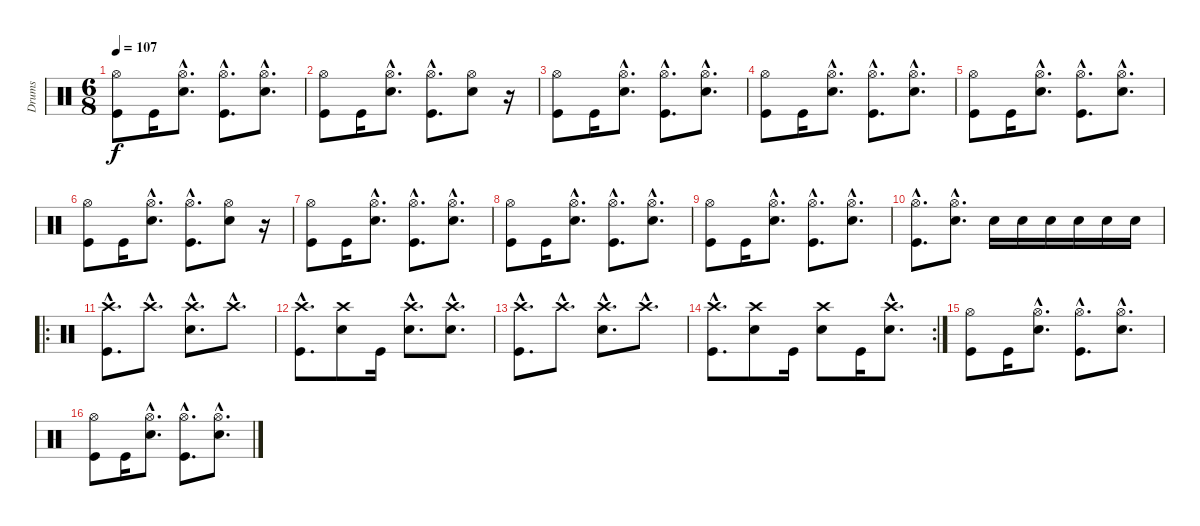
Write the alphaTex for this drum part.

\track ("Drums" "Drums") {instrument percussion}
\staff {score}
\articulation defaults
\ts (6 8)
\tempo 107
\clef neutral
\ks c
("Hi-Hat (open)" "Kick (hit)").8{dy f} "Kick (hit)".16 ("Hi-Hat (open)"{hac} "Snare (hit) 2"{hac}).8{d} ("Hi-Hat (open)"{hac} "Kick (hit)"{hac}).8{d} ("Hi-Hat (open)"{hac} "Snare (hit) 2"{hac}).8{d} |
("Hi-Hat (open)" "Kick (hit)").8 "Kick (hit)".16 ("Hi-Hat (open)"{hac} "Snare (hit) 2"{hac}).8{d} ("Hi-Hat (open)"{hac} "Kick (hit)"{hac}).8{d} ("Hi-Hat (open)" "Snare (hit) 2").8 r.16 |
("Hi-Hat (open)" "Kick (hit)").8 "Kick (hit)".16 ("Hi-Hat (open)"{hac} "Snare (hit) 2"{hac}).8{d} ("Hi-Hat (open)"{hac} "Kick (hit)"{hac}).8{d} ("Hi-Hat (open)"{hac} "Snare (hit) 2"{hac}).8{d} |
("Hi-Hat (open)" "Kick (hit)").8 "Kick (hit)".16 ("Hi-Hat (open)"{hac} "Snare (hit) 2"{hac}).8{d} ("Hi-Hat (open)"{hac} "Kick (hit)"{hac}).8{d} ("Hi-Hat (open)"{hac} "Snare (hit) 2"{hac}).8{d} |
("Hi-Hat (open)" "Kick (hit)").8 "Kick (hit)".16 ("Hi-Hat (open)"{hac} "Snare (hit) 2"{hac}).8{d} ("Hi-Hat (open)"{hac} "Kick (hit)"{hac}).8{d} ("Hi-Hat (open)"{hac} "Snare (hit) 2"{hac}).8{d} |
("Hi-Hat (open)" "Kick (hit)").8 "Kick (hit)".16 ("Hi-Hat (open)"{hac} "Snare (hit) 2"{hac}).8{d} ("Hi-Hat (open)"{hac} "Kick (hit)"{hac}).8{d} ("Hi-Hat (open)" "Snare (hit) 2").8 r.16 |
("Hi-Hat (open)" "Kick (hit)").8 "Kick (hit)".16 ("Hi-Hat (open)"{hac} "Snare (hit) 2"{hac}).8{d} ("Hi-Hat (open)"{hac} "Kick (hit)"{hac}).8{d} ("Hi-Hat (open)"{hac} "Snare (hit) 2"{hac}).8{d} |
("Hi-Hat (open)" "Kick (hit)").8 "Kick (hit)".16 ("Hi-Hat (open)"{hac} "Snare (hit) 2"{hac}).8{d} ("Hi-Hat (open)"{hac} "Kick (hit)"{hac}).8{d} ("Hi-Hat (open)"{hac} "Snare (hit) 2"{hac}).8{d} |
("Hi-Hat (open)" "Kick (hit)").8 "Kick (hit)".16 ("Hi-Hat (open)"{hac} "Snare (hit) 2"{hac}).8{d} ("Hi-Hat (open)"{hac} "Kick (hit)"{hac}).8{d} ("Hi-Hat (open)"{hac} "Snare (hit) 2"{hac}).8{d} |
("Hi-Hat (open)"{hac} "Kick (hit)"{hac}).8{d} ("Hi-Hat (open)"{hac} "Snare (hit) 2"{hac}).8{d} "Snare (hit) 2".16 "Snare (hit) 2".16 "Snare (hit) 2".16 "Snare (hit) 2".16 "Snare (hit) 2".16 "Snare (hit) 2".16 |
\ro
("Crash high (hit)"{hac} "Kick (hit)"{hac}).8{d} "Crash high (hit)"{hac}.8{d} ("Crash high (hit)"{hac} "Snare (hit) 2"{hac}).8{d} "Crash high (hit)"{hac}.8{d} |
("Crash high (hit)"{hac} "Kick (hit)"{hac}).8{d} ("Crash high (hit)" "Snare (hit) 2").8 "Kick (hit)".16 ("Crash high (hit)"{hac} "Snare (hit) 2"{hac}).8{d} ("Crash high (hit)"{hac} "Snare (hit) 2"{hac}).8{d} |
("Crash high (hit)"{hac} "Kick (hit)"{hac}).8{d} "Crash high (hit)"{hac}.8{d} ("Crash high (hit)"{hac} "Snare (hit) 2"{hac}).8{d} "Crash high (hit)"{hac}.8{d} |
\rc 2
("Crash high (hit)"{hac} "Kick (hit)"{hac}).8{d} ("Crash high (hit)" "Snare (hit) 2").8 "Kick (hit)".16 ("Crash high (hit)" "Snare (hit) 2").8 "Kick (hit)".16 ("Crash high (hit)"{hac} "Snare (hit) 2"{hac}).8{d} |
("Hi-Hat (open)" "Kick (hit)").8 "Kick (hit)".16 ("Hi-Hat (open)"{hac} "Snare (hit) 2"{hac}).8{d} ("Hi-Hat (open)"{hac} "Kick (hit)"{hac}).8{d} ("Hi-Hat (open)"{hac} "Snare (hit) 2"{hac}).8{d} |
("Hi-Hat (open)" "Kick (hit)").8 "Kick (hit)".16 ("Hi-Hat (open)"{hac} "Snare (hit) 2"{hac}).8{d} ("Hi-Hat (open)"{hac} "Kick (hit)"{hac}).8{d} ("Hi-Hat (open)"{hac} "Snare (hit) 2"{hac}).8{d}
